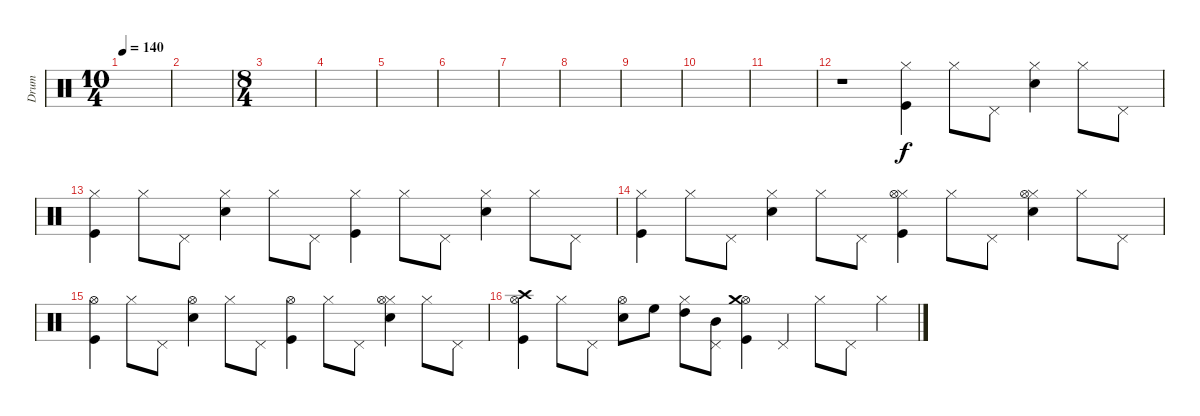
\track ("Drum" "Drum") {instrument percussion}
\staff {score}
\articulation defaults
\ts (10 4)
\tempo 140
\clef neutral
\ks c
|
|
\ts (8 4)
|
|
|
|
|
|
|
|
|
r.1 ("Kick (hit)" "Hi-Hat (closed)").4 "Hi-Hat (closed)".8 "Pedal Hi-Hat (hit)".8 ("Snare (hit) 2" "Hi-Hat (closed)").4 "Hi-Hat (closed)".8 "Pedal Hi-Hat (hit)".8 |
("Kick (hit)" "Hi-Hat (closed)").4 "Hi-Hat (closed)".8 "Pedal Hi-Hat (hit)".8 ("Snare (hit) 2" "Hi-Hat (closed)").4 "Hi-Hat (closed)".8 "Pedal Hi-Hat (hit)".8 ("Kick (hit)" "Hi-Hat (closed)").4 "Hi-Hat (closed)".8 "Pedal Hi-Hat (hit)".8 ("Snare (hit) 2" "Hi-Hat (closed)").4 "Hi-Hat (closed)".8 "Pedal Hi-Hat (hit)".8 |
("Kick (hit)" "Hi-Hat (closed)").4 "Hi-Hat (closed)".8 "Pedal Hi-Hat (hit)".8 ("Snare (hit) 2" "Hi-Hat (closed)").4 "Hi-Hat (closed)".8 "Pedal Hi-Hat (hit)".8 ("Kick (hit)" "Hi-Hat (closed)" "Hi-Hat (open)").4 "Hi-Hat (closed)".8 "Pedal Hi-Hat (hit)".8 ("Snare (hit) 2" "Hi-Hat (closed)" "Hi-Hat (open)").4 "Hi-Hat (closed)".8 "Pedal Hi-Hat (hit)".8 |
("Kick (hit)" "Hi-Hat (open)").4 "Hi-Hat (closed)".8 "Pedal Hi-Hat (hit)".8 ("Snare (hit) 2" "Hi-Hat (open)").4 "Hi-Hat (closed)".8 "Pedal Hi-Hat (hit)".8 ("Kick (hit)" "Hi-Hat (open)").4 "Hi-Hat (closed)".8 "Pedal Hi-Hat (hit)".8 ("Snare (hit) 2" "Hi-Hat (closed)" "Hi-Hat (open)").4 "Hi-Hat (closed)".8 "Pedal Hi-Hat (hit)".8 |
("Kick (hit)" "Hi-Hat (open)" "Crash high (hit)").4 "Hi-Hat (closed)".8 "Pedal Hi-Hat (hit)".8 ("Snare (hit) 2" "Hi-Hat (open)").8 "High Floor Tom (hit)".8 ("High Tom (hit)" "Hi-Hat (closed)").8 ("Mid Tom (hit)" "Pedal Hi-Hat (hit)").8 ("Kick (hit)" "Hi-Hat (open)" "Crash medium (hit)").4 "Pedal Hi-Hat (hit)".4 "Hi-Hat (closed)".8 "Pedal Hi-Hat (hit)".8 "Hi-Hat (closed)".4
